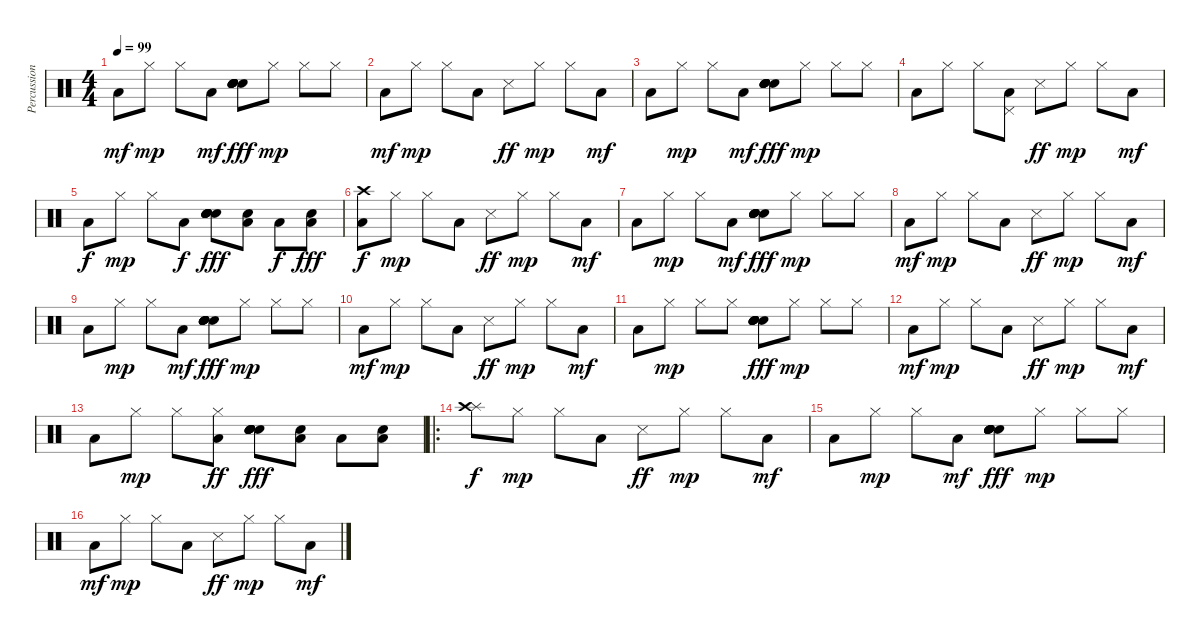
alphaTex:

\track ("Percussion" "Percussion") {instrument percussion}
\staff {score}
\articulation defaults
\ts (4 4)
\tempo 99
\clef neutral
\ks c "Low Tom (hit)".8{dy mf} "Hi-Hat (closed)".8{dy mp} "Hi-Hat (closed)".8 "Low Tom (hit)".8{dy mf}
("Snare (hit) 2" "Snare (hit) 2" "Snare (hit) 2" "Snare (hit) 2" "Electric Snare (hit)" "Snare (hit) 2").8{dy fff} "Hi-Hat (closed)".8{dy mp} "Hi-Hat (closed)".8 "Hi-Hat (closed)".8 |
"Low Tom (hit)".8{dy mf} "Hi-Hat (closed)".8{dy mp} "Hi-Hat (closed)".8 "Low Tom (hit)".8 "Snare (side stick) 3".8{dy ff} "Hi-Hat (closed)".8{dy mp} "Hi-Hat (closed)".8 "Low Tom (hit)".8{dy mf} |
"Low Tom (hit)".8 "Hi-Hat (closed)".8{dy mp} "Hi-Hat (closed)".8 "Low Tom (hit)".8{dy mf} ("Snare (hit) 2" "Snare (hit) 2" "Snare (hit) 2" "Snare (hit) 2" "Electric Snare (hit)" "Snare (hit) 2").8{dy fff} "Hi-Hat (closed)".8{dy mp} "Hi-Hat (closed)".8 "Hi-Hat (closed)".8 |
"Low Tom (hit)".8 "Hi-Hat (closed)".8 "Hi-Hat (closed)".8 ("Low Tom (hit)" "Pedal Hi-Hat (hit)").8 "Snare (side stick) 3".8{dy ff} "Hi-Hat (closed)".8{dy mp} "Hi-Hat (closed)".8 "Low Tom (hit)".8{dy mf} |
"Low Tom (hit)".8{dy f} "Hi-Hat (closed)".8{dy mp} "Hi-Hat (closed)".8 "Low Tom (hit)".8{dy f} ("Snare (hit) 2" "Snare (hit) 2" "Snare (hit) 2" "Snare (hit) 2" "Electric Snare (hit)" "Snare (hit) 2").8{dy fff} ("Low Floor Tom (hit)" "Snare (hit) 2").8 "Low Floor Tom (hit)".8{dy f} ("Low Floor Tom (hit)" "Snare (hit) 2").8{dy fff} |
("Crash high (hit)" "Low Floor Tom (hit)").8{dy f} "Hi-Hat (closed)".8{dy mp} "Hi-Hat (closed)".8 "Low Tom (hit)".8 "Snare (side stick) 3".8{dy ff} "Hi-Hat (closed)".8{dy mp} "Hi-Hat (closed)".8 "Low Tom (hit)".8{dy mf} |
"Low Tom (hit)".8 "Hi-Hat (closed)".8{dy mp} "Hi-Hat (closed)".8 "Low Tom (hit)".8{dy mf} ("Snare (hit) 2" "Snare (hit) 2" "Snare (hit) 2" "Snare (hit) 2" "Electric Snare (hit)" "Snare (hit) 2").8{dy fff} "Hi-Hat (closed)".8{dy mp} "Hi-Hat (closed)".8 "Hi-Hat (closed)".8 |
"Low Tom (hit)".8{dy mf} "Hi-Hat (closed)".8{dy mp} "Hi-Hat (closed)".8 "Low Tom (hit)".8 "Snare (side stick) 3".8{dy ff} "Hi-Hat (closed)".8{dy mp} "Hi-Hat (closed)".8 "Low Tom (hit)".8{dy mf} |
"Low Tom (hit)".8 "Hi-Hat (closed)".8{dy mp} "Hi-Hat (closed)".8 "Low Tom (hit)".8{dy mf} ("Snare (hit) 2" "Snare (hit) 2" "Snare (hit) 2" "Snare (hit) 2" "Electric Snare (hit)" "Snare (hit) 2").8{dy fff} "Hi-Hat (closed)".8{dy mp} "Hi-Hat (closed)".8 "Hi-Hat (closed)".8 |
"Low Tom (hit)".8{dy mf} "Hi-Hat (closed)".8{dy mp} "Hi-Hat (closed)".8 "Low Tom (hit)".8 "Snare (side stick) 3".8{dy ff} "Hi-Hat (closed)".8{dy mp} "Hi-Hat (closed)".8 "Low Tom (hit)".8{dy mf} |
"Low Tom (hit)".8 "Hi-Hat (closed)".8{dy mp} "Hi-Hat (closed)".8 "Hi-Hat (closed)".8 ("Snare (hit) 2" "Snare (hit) 2" "Snare (hit) 2" "Snare (hit) 2" "Electric Snare (hit)" "Snare (hit) 2").8{dy fff} "Hi-Hat (closed)".8{dy mp} "Hi-Hat (closed)".8 "Hi-Hat (closed)".8 |
"Low Tom (hit)".8{dy mf} "Hi-Hat (closed)".8{dy mp} "Hi-Hat (closed)".8 "Low Tom (hit)".8 "Snare (side stick) 3".8{dy ff} "Hi-Hat (closed)".8{dy mp} "Hi-Hat (closed)".8 "Low Tom (hit)".8{dy mf} |
"Low Tom (hit)".8 "Hi-Hat (closed)".8{dy mp} "Hi-Hat (closed)".8 ("Hi-Hat (closed)" "Low Floor Tom (hit)").8{dy ff} ("Snare (hit) 2" "Snare (hit) 2" "Snare (hit) 2" "Snare (hit) 2" "Electric Snare (hit)" "Snare (hit) 2").8{dy fff} ("Low Floor Tom (hit)" "Snare (hit) 2").8 "Low Floor Tom (hit)".8 ("Low Floor Tom (hit)" "Snare (hit) 2").8 |
\ro
("Splash (hit)" "Crash high (hit)").8{dy f} "Hi-Hat (closed)".8{dy mp} "Hi-Hat (closed)".8 "Low Tom (hit)".8 "Snare (side stick) 3".8{dy ff} "Hi-Hat (closed)".8{dy mp} "Hi-Hat (closed)".8 "Low Tom (hit)".8{dy mf} |
"Low Tom (hit)".8 "Hi-Hat (closed)".8{dy mp} "Hi-Hat (closed)".8 "Low Tom (hit)".8{dy mf} ("Snare (hit) 2" "Snare (hit) 2" "Snare (hit) 2" "Snare (hit) 2" "Electric Snare (hit)" "Snare (hit) 2").8{dy fff} "Hi-Hat (closed)".8{dy mp} "Hi-Hat (closed)".8 "Hi-Hat (closed)".8 |
"Low Tom (hit)".8{dy mf} "Hi-Hat (closed)".8{dy mp} "Hi-Hat (closed)".8 "Low Tom (hit)".8 "Snare (side stick) 3".8{dy ff} "Hi-Hat (closed)".8{dy mp} "Hi-Hat (closed)".8 "Low Tom (hit)".8{dy mf}
